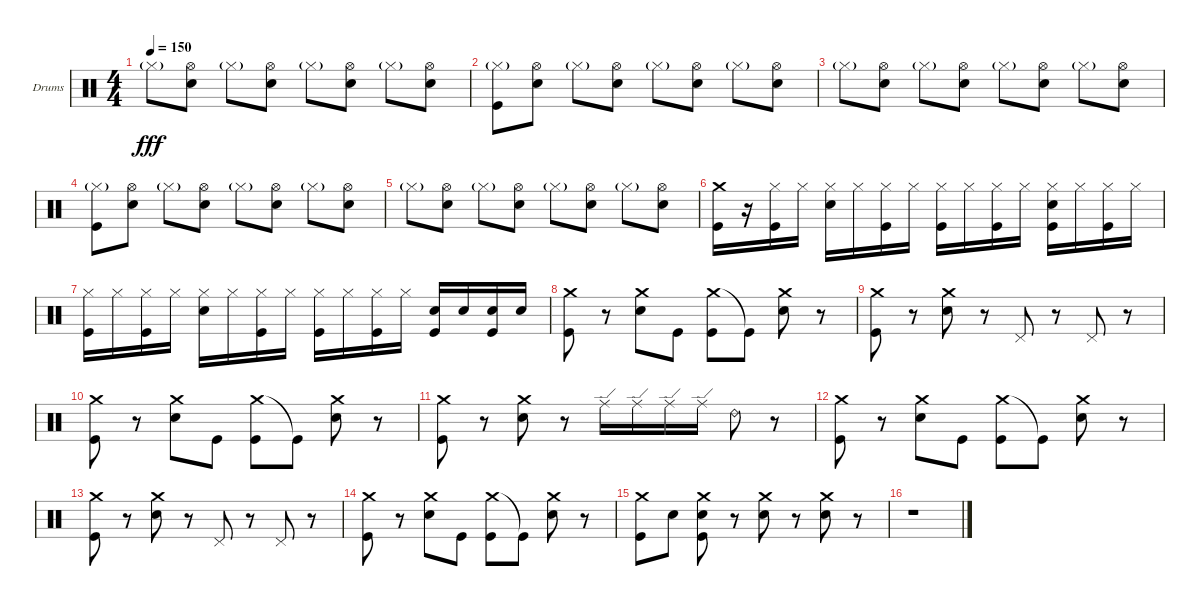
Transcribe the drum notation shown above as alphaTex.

\defaultSystemsLayout 4
\bracketExtendMode groupsimilarinstruments
\firstSystemTrackNameOrientation horizontal
\otherSystemsTrackNameOrientation horizontal
\track ("Matt Helders" "Drums") {instrument percussion}
\staff {score}
\articulation defaults
\ts (4 4)
\tempo 150
\clef neutral
\ks c "Hi-Hat (closed)"{g}.8{dy fff}
("Hi-Hat (open)" "Snare (hit) 2").8 "Hi-Hat (closed)"{g}.8 ("Hi-Hat (open)" "Snare (hit) 2").8 "Hi-Hat (closed)"{g}.8 ("Hi-Hat (open)" "Snare (hit) 2").8 "Hi-Hat (closed)"{g}.8 ("Hi-Hat (open)" "Snare (hit) 2").8 |
("Hi-Hat (closed)"{g} "Kick (hit)").8 ("Hi-Hat (open)" "Snare (hit) 2").8 "Hi-Hat (closed)"{g}.8 ("Hi-Hat (open)" "Snare (hit) 2").8 "Hi-Hat (closed)"{g}.8 ("Hi-Hat (open)" "Snare (hit) 2").8 "Hi-Hat (closed)"{g}.8 ("Hi-Hat (open)" "Snare (hit) 2").8 |
"Hi-Hat (closed)"{g}.8 ("Hi-Hat (open)" "Snare (hit) 2").8 "Hi-Hat (closed)"{g}.8 ("Hi-Hat (open)" "Snare (hit) 2").8 "Hi-Hat (closed)"{g}.8 ("Hi-Hat (open)" "Snare (hit) 2").8 "Hi-Hat (closed)"{g}.8 ("Hi-Hat (open)" "Snare (hit) 2").8 |
("Hi-Hat (closed)"{g} "Kick (hit)").8 ("Hi-Hat (open)" "Snare (hit) 2").8 "Hi-Hat (closed)"{g}.8 ("Hi-Hat (open)" "Snare (hit) 2").8 "Hi-Hat (closed)"{g}.8 ("Hi-Hat (open)" "Snare (hit) 2").8 "Hi-Hat (closed)"{g}.8 ("Hi-Hat (open)" "Snare (hit) 2").8 |
"Hi-Hat (closed)"{g}.8 ("Hi-Hat (open)" "Snare (hit) 2").8 "Hi-Hat (closed)"{g}.8 ("Hi-Hat (open)" "Snare (hit) 2").8 "Hi-Hat (closed)"{g}.8 ("Hi-Hat (open)" "Snare (hit) 2").8 "Hi-Hat (closed)"{g}.8 ("Hi-Hat (open)" "Snare (hit) 2").8 |
("Crash medium (hit)" "Kick (hit)").16 r.16 ("Hi-Hat (closed)" "Kick (hit)").16 "Hi-Hat (closed)".16 ("Hi-Hat (closed)" "Snare (hit) 2").16 "Hi-Hat (closed)".16 ("Hi-Hat (closed)" "Kick (hit)").16 "Hi-Hat (closed)".16 ("Hi-Hat (closed)" "Kick (hit)").16 "Hi-Hat (closed)".16 ("Hi-Hat (closed)" "Kick (hit)").16 "Hi-Hat (closed)".16 ("Hi-Hat (closed)" "Snare (hit) 2" "Kick (hit)").16 "Hi-Hat (closed)".16 ("Hi-Hat (closed)" "Kick (hit)").16 "Hi-Hat (closed)".16 |
("Hi-Hat (closed)" "Kick (hit)").16 "Hi-Hat (closed)".16 ("Hi-Hat (closed)" "Kick (hit)").16 "Hi-Hat (closed)".16 ("Hi-Hat (closed)" "Snare (hit) 2").16 "Hi-Hat (closed)".16 ("Hi-Hat (closed)" "Kick (hit)").16 "Hi-Hat (closed)".16 ("Hi-Hat (closed)" "Kick (hit)").16 "Hi-Hat (closed)".16 ("Hi-Hat (closed)" "Kick (hit)").16 "Hi-Hat (closed)".16 ("Snare (hit) 2" "Kick (hit)").16 "Snare (hit) 2".16 ("Snare (hit) 2" "Kick (hit)").16 "Snare (hit) 2".16 |
("Crash medium (hit)" "Kick (hit)").8 r.8 ("Crash medium (hit)" "Snare (hit) 2").8 "Kick (hit)".8 ("Crash medium (hit)" "Kick (hit)").8 "Kick (hit)"{t}.8 ("Crash medium (hit)" "Snare (hit) 2").8 r.8 |
("Crash medium (hit)" "Kick (hit)").8 r.8 ("Crash medium (hit)" "Snare (hit) 2").8 r.8 "Pedal Hi-Hat (hit)".8 r.8 "Pedal Hi-Hat (hit)".8 r.8 |
("Crash medium (hit)" "Kick (hit)").8 r.8 ("Crash medium (hit)" "Snare (hit) 2").8 "Kick (hit)".8 ("Crash medium (hit)" "Kick (hit)").8 "Kick (hit)"{t}.8 ("Crash medium (hit)" "Snare (hit) 2").8 r.8 |
("Crash medium (hit)" "Kick (hit)").8 r.8 ("Crash medium (hit)" "Snare (hit) 2").8 r.8 "Ride (edge)".16 "Ride (edge)".16 "Ride (edge)".16 "Ride (edge)".16 "Ride (bell) 2".8 r.8 |
("Crash medium (hit)" "Kick (hit)").8 r.8 ("Crash medium (hit)" "Snare (hit) 2").8 "Kick (hit)".8 ("Crash medium (hit)" "Kick (hit)").8 "Kick (hit)"{t}.8 ("Crash medium (hit)" "Snare (hit) 2").8 r.8 |
("Crash medium (hit)" "Kick (hit)").8 r.8 ("Crash medium (hit)" "Snare (hit) 2").8 r.8 "Pedal Hi-Hat (hit)".8 r.8 "Pedal Hi-Hat (hit)".8 r.8 |
("Crash medium (hit)" "Kick (hit)").8 r.8 ("Crash medium (hit)" "Snare (hit) 2").8 "Kick (hit)".8 ("Crash medium (hit)" "Kick (hit)").8 "Kick (hit)"{t}.8 ("Crash medium (hit)" "Snare (hit) 2").8 r.8 |
("Crash medium (hit)" "Kick (hit)").8 "Snare (hit) 2".8 ("Crash medium (hit)" "Snare (hit) 2" "Kick (hit)").8 r.8 ("Crash medium (hit)" "Snare (hit) 2").8 r.8 ("Crash medium (hit)" "Snare (hit) 2").8 r.8 |
r.1
